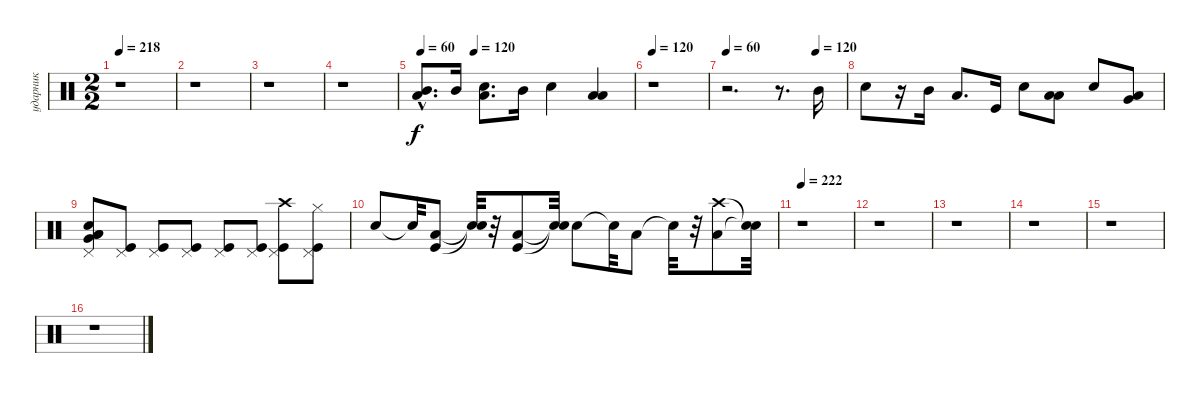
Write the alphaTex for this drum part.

\track ("ударник" "ударник") {instrument percussion}
\staff {score}
\articulation defaults
\ts (2 2)
\tempo 218
\clef neutral
\ks c
r.1{dy f} |
r.1 |
r.1 |
r.1 |
\tempo 60
\tempo (120 0.25)
("Mid Tom (hit)"{hac} "Low Tom (hit)"{hac}).8{d} "Mid Tom (hit)".16 ("Low Floor Tom (hit)" "Snare (hit) 2").8{d} "Mid Tom (hit)".16 "Snare (hit) 2".4 ("Low Tom (hit)" "Low Floor Tom (hit)").4 |
\tempo 120
r.1 |
\tempo 60
\tempo (120 0.75)
r.2{d} r.8{d} "Mid Tom (hit)".16 |
"Snare (hit) 2".8 r.16 "Mid Tom (hit)".16 "Low Tom (hit)".8{d} "Kick (hit)".16 "Snare (hit) 2".8 ("Low Tom (hit)" "Low Floor Tom (hit)").8 "Snare (hit) 2".8 ("Low Tom (hit)" "Very Low Tom (hit)").8 |
("Snare (hit) 2" "Low Tom (hit)" "Very Low Tom (hit)" "Low Floor Tom (hit)" "Pedal Hi-Hat (hit)").8 ("Pedal Hi-Hat (hit)" "Kick (hit)").8 ("Pedal Hi-Hat (hit)" "Kick (hit)").8 ("Pedal Hi-Hat (hit)" "Kick (hit)").8 ("Pedal Hi-Hat (hit)" "Kick (hit)").8 ("Pedal Hi-Hat (hit)" "Kick (hit)").8 ("Crash high (hit)" "Pedal Hi-Hat (hit)" "Kick (hit)").8 ("Hi-Hat (closed)" "Pedal Hi-Hat (hit)" "Kick (hit)").8 |
"Snare (hit) 2".8 "Snare (hit)"{t}.32 ("Low Floor Tom (hit)" "Kick (hit)").8 ("Snare (hit)"{t} "Snare (hit)"{t}).32 r.32 ("Low Floor Tom (hit)" "Kick (hit)").8 ("Snare (hit)"{t} "Snare (hit)"{t}).32 "Snare (hit) 2".8 "Snare (hit)"{t}.32 "Low Floor Tom (hit)".8 "Snare (hit)"{t}.32 r.32 ("Low Floor Tom (hit)" "Crash high (hit)").8 ("Snare (hit)"{t} "Snare (hit)"{t}).32 |
\tempo 222
r.1 |
r.1 |
r.1 |
r.1 |
r.1 |
r.1
